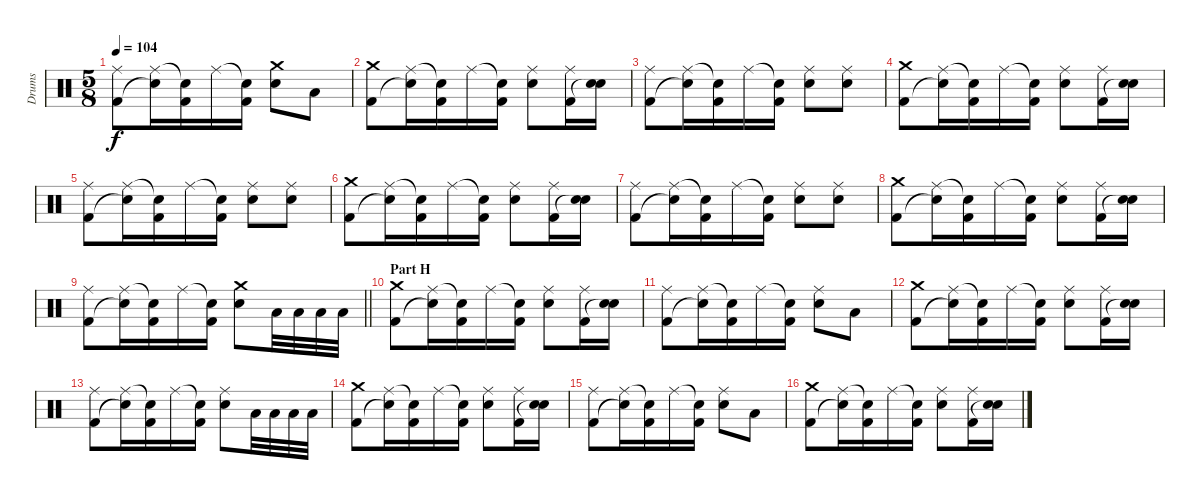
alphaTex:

\track ("Drums" "Drums") {instrument percussion}
\staff {score}
\articulation defaults
\ts (5 8)
\tempo 104
\clef neutral
\ks c
("Ride (middle)" "Kick (hit) 2").8{dy f} ("Ride (middle)" "Snare (hit)"{t}).16 ("Snare (hit)"{t} "Kick (hit) 2").16 "Ride (middle)".16 ("Snare (hit)"{t} "Kick (hit) 2").16 ("Crash medium (hit)" "Electric Snare (hit)").8 "Low Floor Tom (hit)".8 |
("Crash medium (hit)" "Kick (hit) 2").8 ("Ride (middle)" "Snare (hit)"{t}).16 ("Snare (hit)"{t} "Kick (hit) 2").16 "Ride (middle)".16 ("Snare (hit)"{t} "Kick (hit) 2").16 ("Ride (middle)" "Electric Snare (hit)").8 ("Ride (middle)" "Kick (hit) 2").16 ("Electric Snare (hit)" "Snare (hit)"{t}).16 |
("Ride (middle)" "Kick (hit) 2").8 ("Ride (middle)" "Snare (hit)"{t}).16 ("Snare (hit)"{t} "Kick (hit) 2").16 "Ride (middle)".16 ("Snare (hit)"{t} "Kick (hit) 2").16 ("Ride (middle)" "Electric Snare (hit)").8 ("Ride (middle)" "Electric Snare (hit)").8 |
("Crash medium (hit)" "Kick (hit) 2").8 ("Ride (middle)" "Snare (hit)"{t}).16 ("Snare (hit)"{t} "Kick (hit) 2").16 "Ride (middle)".16 ("Snare (hit)"{t} "Kick (hit) 2").16 ("Ride (middle)" "Electric Snare (hit)").8 ("Ride (middle)" "Kick (hit) 2").16 ("Electric Snare (hit)" "Snare (hit)"{t}).16 |
("Ride (middle)" "Kick (hit) 2").8 ("Ride (middle)" "Snare (hit)"{t}).16 ("Snare (hit)"{t} "Kick (hit) 2").16 "Ride (middle)".16 ("Snare (hit)"{t} "Kick (hit) 2").16 ("Ride (middle)" "Electric Snare (hit)").8 ("Ride (middle)" "Electric Snare (hit)").8 |
("Crash medium (hit)" "Kick (hit) 2").8 ("Ride (middle)" "Snare (hit)"{t}).16 ("Snare (hit)"{t} "Kick (hit) 2").16 "Ride (middle)".16 ("Snare (hit)"{t} "Kick (hit) 2").16 ("Ride (middle)" "Electric Snare (hit)").8 ("Ride (middle)" "Kick (hit) 2").16 ("Electric Snare (hit)" "Snare (hit)"{t}).16 |
("Ride (middle)" "Kick (hit) 2").8 ("Ride (middle)" "Snare (hit)"{t}).16 ("Snare (hit)"{t} "Kick (hit) 2").16 "Ride (middle)".16 ("Snare (hit)"{t} "Kick (hit) 2").16 ("Ride (middle)" "Electric Snare (hit)").8 ("Ride (middle)" "Electric Snare (hit)").8 |
("Crash medium (hit)" "Kick (hit) 2").8 ("Ride (middle)" "Snare (hit)"{t}).16 ("Snare (hit)"{t} "Kick (hit) 2").16 "Ride (middle)".16 ("Snare (hit)"{t} "Kick (hit) 2").16 ("Ride (middle)" "Electric Snare (hit)").8 ("Ride (middle)" "Kick (hit) 2").16 ("Electric Snare (hit)" "Snare (hit)"{t}).16 |
\barLineRight lightlight
("Ride (middle)" "Kick (hit) 2").8 ("Ride (middle)" "Snare (hit)"{t}).16 ("Snare (hit)"{t} "Kick (hit) 2").16 "Ride (middle)".16 ("Snare (hit)"{t} "Kick (hit) 2").16 ("Crash medium (hit)" "Electric Snare (hit)").8 "Low Tom (hit)".32 "Low Tom (hit)".32 "Low Tom (hit)".32 "Low Tom (hit)".32 |
\section ("" "Part H")
("Crash medium (hit)" "Kick (hit) 2").8 ("Ride (middle)" "Snare (hit)"{t}).16 ("Snare (hit)"{t} "Kick (hit) 2").16 "Ride (middle)".16 ("Snare (hit)"{t} "Kick (hit) 2").16 ("Ride (middle)" "Electric Snare (hit)").8 ("Ride (middle)" "Kick (hit) 2").16 ("Electric Snare (hit)" "Snare (hit)"{t}).16 |
("Ride (middle)" "Kick (hit) 2").8 ("Ride (middle)" "Snare (hit)"{t}).16 ("Snare (hit)"{t} "Kick (hit) 2").16 "Ride (middle)".16 ("Snare (hit)"{t} "Kick (hit) 2").16 ("Ride (middle)" "Electric Snare (hit)").8 "Low Tom (hit)".8 |
("Crash medium (hit)" "Kick (hit) 2").8 ("Ride (middle)" "Snare (hit)"{t}).16 ("Snare (hit)"{t} "Kick (hit) 2").16 "Ride (middle)".16 ("Snare (hit)"{t} "Kick (hit) 2").16 ("Ride (middle)" "Electric Snare (hit)").8 ("Ride (middle)" "Kick (hit) 2").16 ("Electric Snare (hit)" "Snare (hit)"{t}).16 |
("Ride (middle)" "Kick (hit) 2").8 ("Ride (middle)" "Snare (hit)"{t}).16 ("Snare (hit)"{t} "Kick (hit) 2").16 "Ride (middle)".16 ("Snare (hit)"{t} "Kick (hit) 2").16 ("Ride (middle)" "Electric Snare (hit)").8 "Low Tom (hit)".32 "Low Tom (hit)".32 "Low Tom (hit)".32 "Low Tom (hit)".32 |
("Crash medium (hit)" "Kick (hit) 2").8 ("Ride (middle)" "Snare (hit)"{t}).16 ("Snare (hit)"{t} "Kick (hit) 2").16 "Ride (middle)".16 ("Snare (hit)"{t} "Kick (hit) 2").16 ("Ride (middle)" "Electric Snare (hit)").8 ("Ride (middle)" "Kick (hit) 2").16 ("Electric Snare (hit)" "Snare (hit)"{t}).16 |
("Ride (middle)" "Kick (hit) 2").8 ("Ride (middle)" "Snare (hit)"{t}).16 ("Snare (hit)"{t} "Kick (hit) 2").16 "Ride (middle)".16 ("Snare (hit)"{t} "Kick (hit) 2").16 ("Ride (middle)" "Electric Snare (hit)").8 "Low Tom (hit)".8 |
("Crash medium (hit)" "Kick (hit) 2").8 ("Ride (middle)" "Snare (hit)"{t}).16 ("Snare (hit)"{t} "Kick (hit) 2").16 "Ride (middle)".16 ("Snare (hit)"{t} "Kick (hit) 2").16 ("Ride (middle)" "Electric Snare (hit)").8 ("Ride (middle)" "Kick (hit) 2").16 ("Electric Snare (hit)" "Snare (hit)"{t}).16
